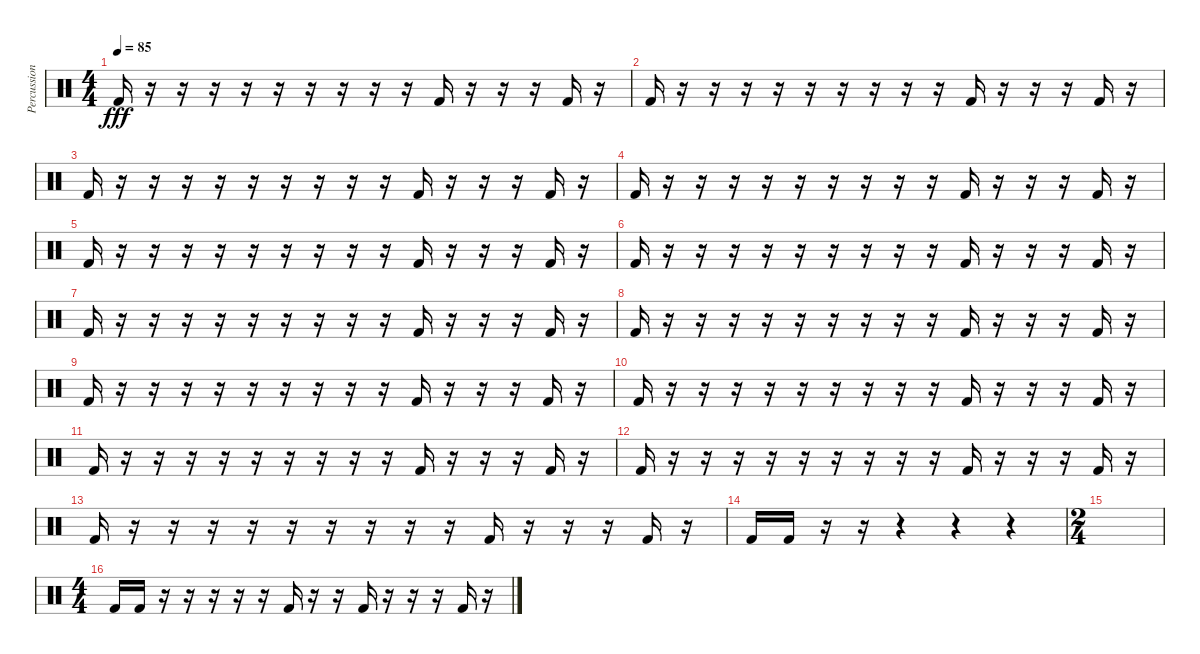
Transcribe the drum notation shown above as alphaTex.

\track ("Percussion" "Percussion") {instrument percussion}
\staff {score}
\articulation defaults
\ts (4 4)
\tempo 85
\clef neutral
\ks c "Kick (hit) 2".16{dy fff}
r.16 r.16 r.16 r.16 r.16 r.16 r.16 r.16 r.16 "Kick (hit) 2".16 r.16 r.16 r.16 "Kick (hit) 2".16 r.16 |
"Kick (hit) 2".16 r.16 r.16 r.16 r.16 r.16 r.16 r.16 r.16 r.16 "Kick (hit) 2".16 r.16 r.16 r.16 "Kick (hit) 2".16 r.16 |
"Kick (hit) 2".16 r.16 r.16 r.16 r.16 r.16 r.16 r.16 r.16 r.16 "Kick (hit) 2".16 r.16 r.16 r.16 "Kick (hit) 2".16 r.16 |
"Kick (hit) 2".16 r.16 r.16 r.16 r.16 r.16 r.16 r.16 r.16 r.16 "Kick (hit) 2".16 r.16 r.16 r.16 "Kick (hit) 2".16 r.16 |
"Kick (hit) 2".16 r.16 r.16 r.16 r.16 r.16 r.16 r.16 r.16 r.16 "Kick (hit) 2".16 r.16 r.16 r.16 "Kick (hit) 2".16 r.16 |
"Kick (hit) 2".16 r.16 r.16 r.16 r.16 r.16 r.16 r.16 r.16 r.16 "Kick (hit) 2".16 r.16 r.16 r.16 "Kick (hit) 2".16 r.16 |
"Kick (hit) 2".16 r.16 r.16 r.16 r.16 r.16 r.16 r.16 r.16 r.16 "Kick (hit) 2".16 r.16 r.16 r.16 "Kick (hit) 2".16 r.16 |
"Kick (hit) 2".16 r.16 r.16 r.16 r.16 r.16 r.16 r.16 r.16 r.16 "Kick (hit) 2".16 r.16 r.16 r.16 "Kick (hit) 2".16 r.16 |
"Kick (hit) 2".16 r.16 r.16 r.16 r.16 r.16 r.16 r.16 r.16 r.16 "Kick (hit) 2".16 r.16 r.16 r.16 "Kick (hit) 2".16 r.16 |
"Kick (hit) 2".16 r.16 r.16 r.16 r.16 r.16 r.16 r.16 r.16 r.16 "Kick (hit) 2".16 r.16 r.16 r.16 "Kick (hit) 2".16 r.16 |
"Kick (hit) 2".16 r.16 r.16 r.16 r.16 r.16 r.16 r.16 r.16 r.16 "Kick (hit) 2".16 r.16 r.16 r.16 "Kick (hit) 2".16 r.16 |
"Kick (hit) 2".16 r.16 r.16 r.16 r.16 r.16 r.16 r.16 r.16 r.16 "Kick (hit) 2".16 r.16 r.16 r.16 "Kick (hit) 2".16 r.16 |
"Kick (hit) 2".16 r.16 r.16 r.16 r.16 r.16 r.16 r.16 r.16 r.16 "Kick (hit) 2".16 r.16 r.16 r.16 "Kick (hit) 2".16 r.16 |
"Kick (hit) 2".16 "Kick (hit) 2".16 r.16 r.16 r.4 r.4 r.4 |
\ts (2 4)
|
\ts (4 4)
"Kick (hit) 2".16 "Kick (hit) 2".16 r.16 r.16 r.16 r.16 r.16 "Kick (hit) 2".16 r.16 r.16 "Kick (hit) 2".16 r.16 r.16 r.16 "Kick (hit) 2".16 r.16
